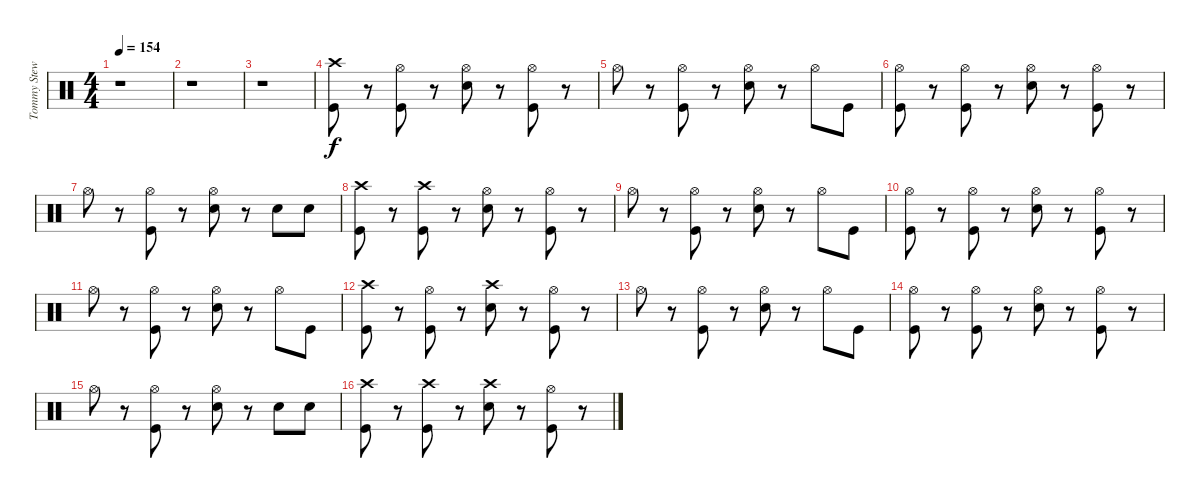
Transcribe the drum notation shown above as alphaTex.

\track ("Tommy Stewart" "Tommy Stew") {instrument percussion}
\staff {score}
\articulation defaults
\ts (4 4)
\tempo 154
\clef neutral
\ks c
r.1{dy f} |
r.1 |
r.1 |
("Crash high (hit)" "Kick (hit)").8 r.8 ("Hi-Hat (open)" "Kick (hit)").8 r.8 ("Hi-Hat (open)" "Snare (hit) 2").8 r.8 ("Hi-Hat (open)" "Kick (hit)").8 r.8 |
"Hi-Hat (open)".8 r.8 ("Hi-Hat (open)" "Kick (hit)").8 r.8 ("Hi-Hat (open)" "Snare (hit) 2").8 r.8 "Hi-Hat (open)".8 "Kick (hit)".8 |
("Hi-Hat (open)" "Kick (hit)").8 r.8 ("Hi-Hat (open)" "Kick (hit)").8 r.8 ("Hi-Hat (open)" "Snare (hit) 2").8 r.8 ("Hi-Hat (open)" "Kick (hit)").8 r.8 |
"Hi-Hat (open)".8 r.8 ("Hi-Hat (open)" "Kick (hit)").8 r.8 ("Hi-Hat (open)" "Snare (hit) 2").8 r.8 "Snare (hit) 2".8 "Snare (hit) 2".8 |
("Crash high (hit)" "Kick (hit)").8 r.8 ("Crash high (hit)" "Kick (hit)").8 r.8 ("Hi-Hat (open)" "Snare (hit) 2").8 r.8 ("Hi-Hat (open)" "Kick (hit)").8 r.8 |
"Hi-Hat (open)".8 r.8 ("Hi-Hat (open)" "Kick (hit)").8 r.8 ("Hi-Hat (open)" "Snare (hit) 2").8 r.8 "Hi-Hat (open)".8 "Kick (hit)".8 |
("Hi-Hat (open)" "Kick (hit)").8 r.8 ("Hi-Hat (open)" "Kick (hit)").8 r.8 ("Hi-Hat (open)" "Snare (hit) 2").8 r.8 ("Hi-Hat (open)" "Kick (hit)").8 r.8 |
"Hi-Hat (open)".8 r.8 ("Hi-Hat (open)" "Kick (hit)").8 r.8 ("Hi-Hat (open)" "Snare (hit) 2").8 r.8 "Hi-Hat (open)".8 "Kick (hit)".8 |
("Crash high (hit)" "Kick (hit)").8 r.8 ("Hi-Hat (open)" "Kick (hit)").8 r.8 ("Crash high (hit)" "Snare (hit) 2").8 r.8 ("Hi-Hat (open)" "Kick (hit)").8 r.8 |
"Hi-Hat (open)".8 r.8 ("Hi-Hat (open)" "Kick (hit)").8 r.8 ("Hi-Hat (open)" "Snare (hit) 2").8 r.8 "Hi-Hat (open)".8 "Kick (hit)".8 |
("Hi-Hat (open)" "Kick (hit)").8 r.8 ("Hi-Hat (open)" "Kick (hit)").8 r.8 ("Hi-Hat (open)" "Snare (hit) 2").8 r.8 ("Hi-Hat (open)" "Kick (hit)").8 r.8 |
"Hi-Hat (open)".8 r.8 ("Hi-Hat (open)" "Kick (hit)").8 r.8 ("Hi-Hat (open)" "Snare (hit) 2").8 r.8 "Snare (hit) 2".8 "Snare (hit) 2".8 |
("Crash high (hit)" "Kick (hit)").8 r.8 ("Crash high (hit)" "Kick (hit)").8 r.8 ("Crash high (hit)" "Snare (hit) 2").8 r.8 ("Hi-Hat (open)" "Kick (hit)").8 r.8
